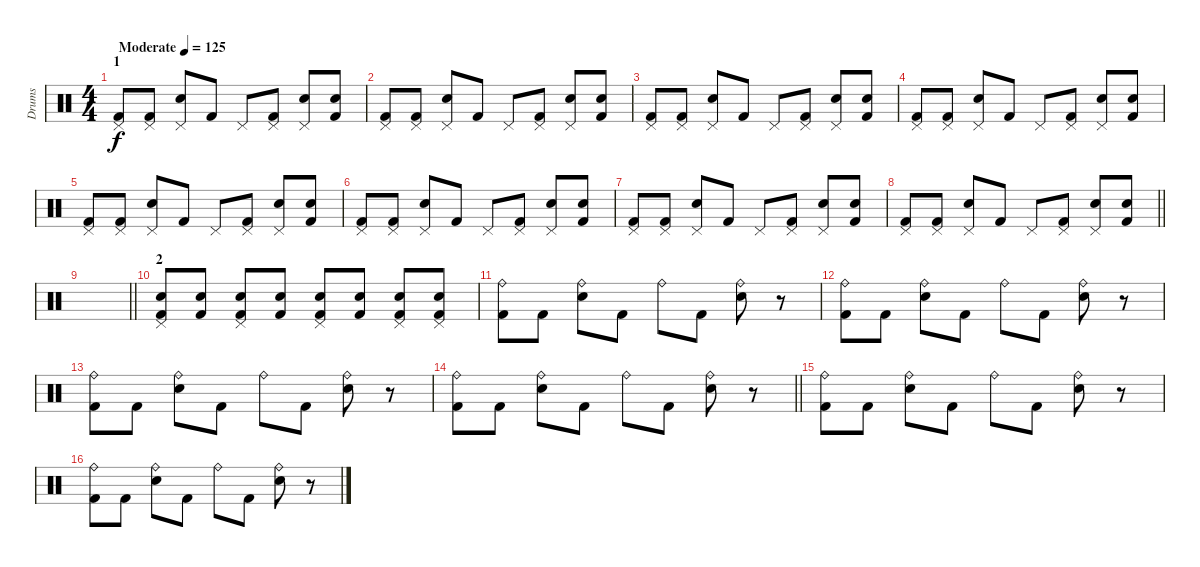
\track ("Drums" "Drums") {instrument percussion}
\staff {score}
\articulation defaults
\ts (4 4)
\section ("" "1")
\tempo (125 "Moderate")
\clef neutral
\ks c
("Kick (hit) 2" "Pedal Hi-Hat (hit)").8{dy f} ("Kick (hit) 2" "Pedal Hi-Hat (hit)").8 ("Electric Snare (hit)" "Pedal Hi-Hat (hit)").8 "Kick (hit) 2".8 "Pedal Hi-Hat (hit)".8 ("Kick (hit) 2" "Pedal Hi-Hat (hit)").8 ("Electric Snare (hit)" "Pedal Hi-Hat (hit)").8 ("Kick (hit) 2" "Snare (hit) 2").8 |
("Kick (hit) 2" "Pedal Hi-Hat (hit)").8 ("Kick (hit) 2" "Pedal Hi-Hat (hit)").8 ("Electric Snare (hit)" "Pedal Hi-Hat (hit)").8 "Kick (hit) 2".8 "Pedal Hi-Hat (hit)".8 ("Kick (hit) 2" "Pedal Hi-Hat (hit)").8 ("Electric Snare (hit)" "Pedal Hi-Hat (hit)").8 ("Kick (hit) 2" "Snare (hit) 2").8 |
("Kick (hit) 2" "Pedal Hi-Hat (hit)").8 ("Kick (hit) 2" "Pedal Hi-Hat (hit)").8 ("Electric Snare (hit)" "Pedal Hi-Hat (hit)").8 "Kick (hit) 2".8 "Pedal Hi-Hat (hit)".8 ("Kick (hit) 2" "Pedal Hi-Hat (hit)").8 ("Electric Snare (hit)" "Pedal Hi-Hat (hit)").8 ("Kick (hit) 2" "Snare (hit) 2").8 |
("Kick (hit) 2" "Pedal Hi-Hat (hit)").8 ("Kick (hit) 2" "Pedal Hi-Hat (hit)").8 ("Electric Snare (hit)" "Pedal Hi-Hat (hit)").8 "Kick (hit) 2".8 "Pedal Hi-Hat (hit)".8 ("Kick (hit) 2" "Pedal Hi-Hat (hit)").8 ("Electric Snare (hit)" "Pedal Hi-Hat (hit)").8 ("Kick (hit) 2" "Snare (hit) 2").8 |
("Kick (hit) 2" "Pedal Hi-Hat (hit)").8 ("Kick (hit) 2" "Pedal Hi-Hat (hit)").8 ("Electric Snare (hit)" "Pedal Hi-Hat (hit)").8 "Kick (hit) 2".8 "Pedal Hi-Hat (hit)".8 ("Kick (hit) 2" "Pedal Hi-Hat (hit)").8 ("Electric Snare (hit)" "Pedal Hi-Hat (hit)").8 ("Kick (hit) 2" "Snare (hit) 2").8 |
("Kick (hit) 2" "Pedal Hi-Hat (hit)").8 ("Kick (hit) 2" "Pedal Hi-Hat (hit)").8 ("Electric Snare (hit)" "Pedal Hi-Hat (hit)").8 "Kick (hit) 2".8 "Pedal Hi-Hat (hit)".8 ("Kick (hit) 2" "Pedal Hi-Hat (hit)").8 ("Electric Snare (hit)" "Pedal Hi-Hat (hit)").8 ("Kick (hit) 2" "Snare (hit) 2").8 |
("Kick (hit) 2" "Pedal Hi-Hat (hit)").8 ("Kick (hit) 2" "Pedal Hi-Hat (hit)").8 ("Electric Snare (hit)" "Pedal Hi-Hat (hit)").8 "Kick (hit) 2".8 "Pedal Hi-Hat (hit)".8 ("Kick (hit) 2" "Pedal Hi-Hat (hit)").8 ("Electric Snare (hit)" "Pedal Hi-Hat (hit)").8 ("Kick (hit) 2" "Snare (hit) 2").8 |
\barLineRight lightlight
("Kick (hit) 2" "Pedal Hi-Hat (hit)").8 ("Kick (hit) 2" "Pedal Hi-Hat (hit)").8 ("Electric Snare (hit)" "Pedal Hi-Hat (hit)").8 "Kick (hit) 2".8 "Pedal Hi-Hat (hit)".8 ("Kick (hit) 2" "Pedal Hi-Hat (hit)").8 ("Electric Snare (hit)" "Pedal Hi-Hat (hit)").8 ("Kick (hit) 2" "Snare (hit) 2").8 |
\barLineRight lightlight
|
\section ("" "2")
("Kick (hit) 2" "Electric Snare (hit)" "Pedal Hi-Hat (hit)").8 ("Kick (hit) 2" "Electric Snare (hit)").8 ("Kick (hit) 2" "Electric Snare (hit)" "Pedal Hi-Hat (hit)").8 ("Kick (hit) 2" "Electric Snare (hit)").8 ("Kick (hit) 2" "Electric Snare (hit)" "Pedal Hi-Hat (hit)").8 ("Kick (hit) 2" "Electric Snare (hit)").8 ("Kick (hit) 2" "Electric Snare (hit)" "Pedal Hi-Hat (hit)").8 ("Kick (hit) 2" "Electric Snare (hit)" "Pedal Hi-Hat (hit)").8 |
("Kick (hit) 2" "Ride (bell)").8 "Kick (hit) 2".8 ("Electric Snare (hit)" "Ride (bell)").8 "Kick (hit) 2".8 "Ride (bell)".8 "Kick (hit) 2".8 ("Electric Snare (hit)" "Ride (bell)").8 r.8 |
("Kick (hit) 2" "Ride (bell)").8 "Kick (hit) 2".8 ("Electric Snare (hit)" "Ride (bell)").8 "Kick (hit) 2".8 "Ride (bell)".8 "Kick (hit) 2".8 ("Electric Snare (hit)" "Ride (bell)").8 r.8 |
("Kick (hit) 2" "Ride (bell)").8 "Kick (hit) 2".8 ("Electric Snare (hit)" "Ride (bell)").8 "Kick (hit) 2".8 "Ride (bell)".8 "Kick (hit) 2".8 ("Electric Snare (hit)" "Ride (bell)").8 r.8 |
\barLineRight lightlight
("Kick (hit) 2" "Ride (bell)").8 "Kick (hit) 2".8 ("Electric Snare (hit)" "Ride (bell)").8 "Kick (hit) 2".8 "Ride (bell)".8 "Kick (hit) 2".8 ("Electric Snare (hit)" "Ride (bell)").8 r.8 |
("Kick (hit) 2" "Ride (bell)").8 "Kick (hit) 2".8 ("Electric Snare (hit)" "Ride (bell)").8 "Kick (hit) 2".8 "Ride (bell)".8 "Kick (hit) 2".8 ("Electric Snare (hit)" "Ride (bell)").8 r.8 |
("Kick (hit) 2" "Ride (bell)").8 "Kick (hit) 2".8 ("Electric Snare (hit)" "Ride (bell)").8 "Kick (hit) 2".8 "Ride (bell)".8 "Kick (hit) 2".8 ("Electric Snare (hit)" "Ride (bell)").8 r.8
